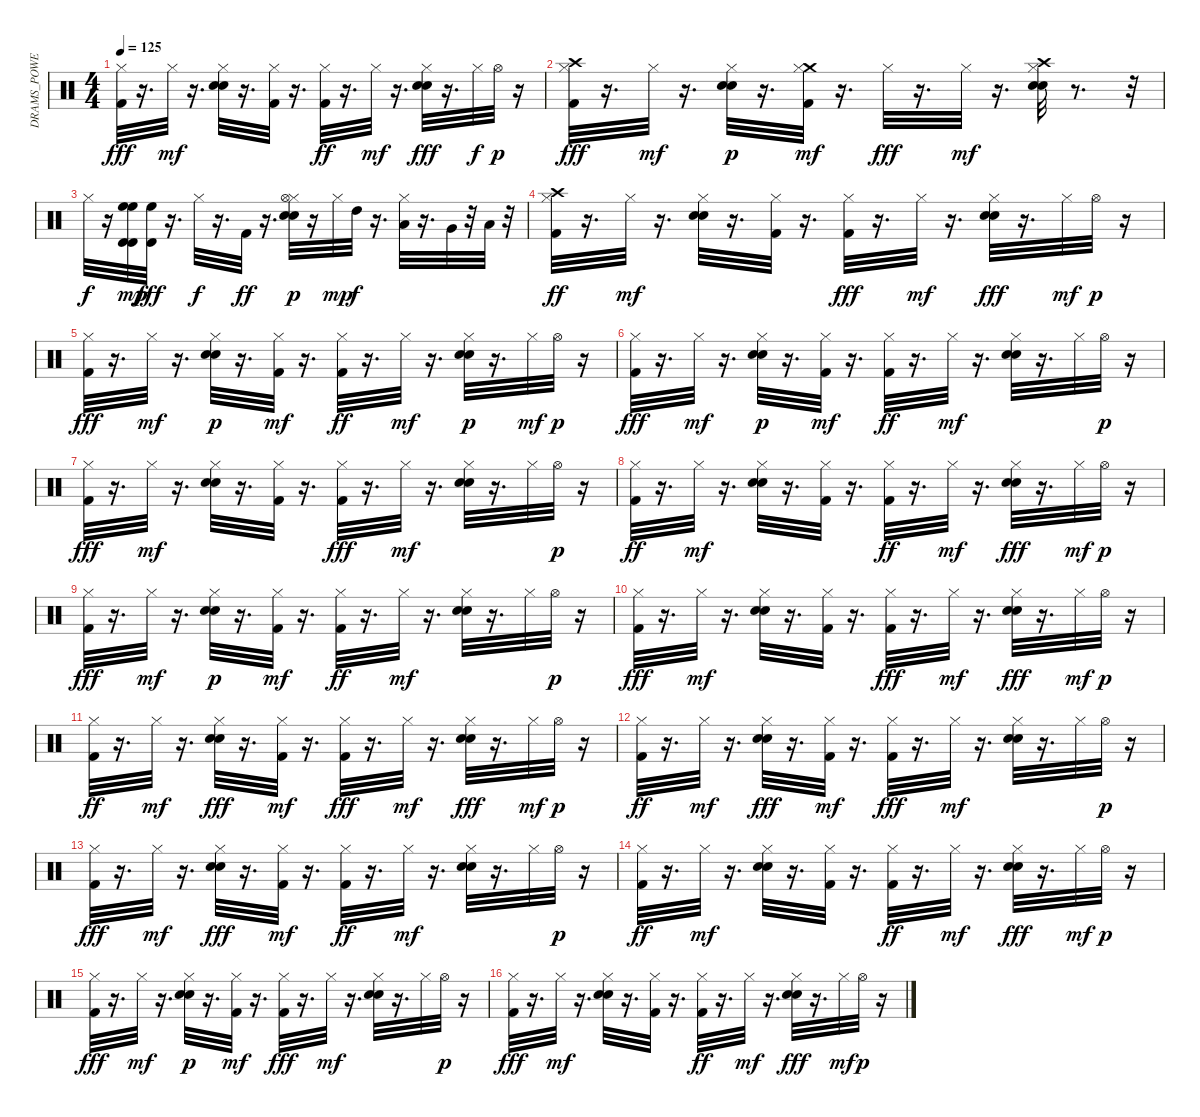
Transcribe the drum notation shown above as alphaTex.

\track ("DRAMS_POWER" "DRAMS_POWE") {instrument percussion}
\staff {score}
\articulation defaults
\ts (4 4)
\tempo 125
\clef neutral
\ks c
("Kick (hit) 2" "Hi-Hat (closed)").32{dy fff} r.16{d} "Hi-Hat (closed)".32{dy mf} r.16{d} ("Snare (hit) 2" "Electric Snare (hit)" "Hi-Hat (closed)").32 r.16{d} ("Kick (hit) 2" "Hi-Hat (closed)").32 r.16{d} ("Hi-Hat (closed)" "Kick (hit) 2").32{dy ff} r.16{d} "Hi-Hat (closed)".32{dy mf} r.16{d} ("Snare (hit) 2" "Hi-Hat (closed)" "Electric Snare (hit)").32{dy fff} r.16{d} "Hi-Hat (closed)".32{dy f} "Hi-Hat (open)".32{dy p} r.16 |
("Crash high (hit)" "Kick (hit) 2" "Hi-Hat (closed)").32{dy fff} r.16{d} "Hi-Hat (closed)".32{dy mf} r.16{d} ("Electric Snare (hit)" "Hi-Hat (closed)" "Snare (hit) 2").32{dy p} r.16{d} ("Crash medium (hit)" "Kick (hit) 2" "Hi-Hat (closed)").32{dy mf} r.16{d} "Hi-Hat (closed)".32{dy fff} r.16{d} "Hi-Hat (closed)".32{dy mf} r.16{d} ("Crash high (hit)" "Electric Snare (hit)" "Snare (hit) 2" "Hi-Hat (closed)").32 r.8{d} r.32 |
"Hi-Hat (closed)".32{dy f} r.16 ("High Floor Tom (hit)" "Timbale high (hit)" "High Floor Tom (hit)" "Timbale high (hit)").32{dy mp} ("Timbale high (hit)" "High Floor Tom (hit)").32{dy fff} r.16{d} "Hi-Hat (closed)".32{dy f} r.16{d} "Kick (hit) 2".32{dy ff} r.16{d} ("Hi-Hat (closed)" "Hi-Hat (open)" "Electric Snare (hit)" "Snare (hit) 2").32{dy p} r.16 "Hi-Hat (closed)".32{dy mp} "High Tom (hit)".32{dy f} r.16{d} ("Hi-Hat (closed)" "Low Tom (hit)").32 r.16{d} "Very Low Tom (hit)".32 r.32 "Low Floor Tom (hit)".32 r.32 |
("Crash high (hit)" "Hi-Hat (closed)" "Kick (hit) 2").32{dy ff} r.16{d} "Hi-Hat (closed)".32{dy mf} r.16{d} ("Electric Snare (hit)" "Snare (hit) 2" "Hi-Hat (closed)").32 r.16{d} ("Kick (hit) 2" "Hi-Hat (closed)").32 r.16{d} ("Kick (hit) 2" "Hi-Hat (closed)").32{dy fff} r.16{d} "Hi-Hat (closed)".32{dy mf} r.16{d} ("Snare (hit) 2" "Hi-Hat (closed)" "Electric Snare (hit)").32{dy fff} r.16{d} "Hi-Hat (closed)".32{dy mf} "Hi-Hat (open)".32{dy p} r.16 |
("Kick (hit) 2" "Hi-Hat (closed)").32{dy fff} r.16{d} "Hi-Hat (closed)".32{dy mf} r.16{d} ("Electric Snare (hit)" "Hi-Hat (closed)" "Snare (hit) 2").32{dy p} r.16{d} ("Kick (hit) 2" "Hi-Hat (closed)").32{dy mf} r.16{d} ("Hi-Hat (closed)" "Kick (hit) 2").32{dy ff} r.16{d} "Hi-Hat (closed)".32{dy mf} r.16{d} ("Hi-Hat (closed)" "Electric Snare (hit)" "Snare (hit) 2").32{dy p} r.16{d} "Hi-Hat (closed)".32{dy mf} "Hi-Hat (open)".32{dy p} r.16 |
("Kick (hit) 2" "Hi-Hat (closed)").32{dy fff} r.16{d} "Hi-Hat (closed)".32{dy mf} r.16{d} ("Hi-Hat (closed)" "Electric Snare (hit)" "Snare (hit) 2").32{dy p} r.16{d} ("Hi-Hat (closed)" "Kick (hit) 2").32{dy mf} r.16{d} ("Hi-Hat (closed)" "Kick (hit) 2").32{dy ff} r.16{d} "Hi-Hat (closed)".32{dy mf} r.16{d} ("Electric Snare (hit)" "Snare (hit) 2" "Hi-Hat (closed)").32 r.16{d} "Hi-Hat (closed)".32 "Hi-Hat (open)".32{dy p} r.16 |
("Kick (hit) 2" "Hi-Hat (closed)").32{dy fff} r.16{d} "Hi-Hat (closed)".32{dy mf} r.16{d} ("Snare (hit) 2" "Electric Snare (hit)" "Hi-Hat (closed)").32 r.16{d} ("Hi-Hat (closed)" "Kick (hit) 2").32 r.16{d} ("Kick (hit) 2" "Hi-Hat (closed)").32{dy fff} r.16{d} "Hi-Hat (closed)".32{dy mf} r.16{d} ("Snare (hit) 2" "Electric Snare (hit)" "Hi-Hat (closed)").32 r.16{d} "Hi-Hat (closed)".32 "Hi-Hat (open)".32{dy p} r.16 |
("Hi-Hat (closed)" "Kick (hit) 2").32{dy ff} r.16{d} "Hi-Hat (closed)".32{dy mf} r.16{d} ("Snare (hit) 2" "Electric Snare (hit)" "Hi-Hat (closed)").32 r.16{d} ("Hi-Hat (closed)" "Kick (hit) 2").32 r.16{d} ("Hi-Hat (closed)" "Kick (hit) 2").32{dy ff} r.16{d} "Hi-Hat (closed)".32{dy mf} r.16{d} ("Snare (hit) 2" "Hi-Hat (closed)" "Electric Snare (hit)").32{dy fff} r.16{d} "Hi-Hat (closed)".32{dy mf} "Hi-Hat (open)".32{dy p} r.16 |
("Kick (hit) 2" "Hi-Hat (closed)").32{dy fff} r.16{d} "Hi-Hat (closed)".32{dy mf} r.16{d} ("Electric Snare (hit)" "Hi-Hat (closed)" "Snare (hit) 2").32{dy p} r.16{d} ("Hi-Hat (closed)" "Kick (hit) 2").32{dy mf} r.16{d} ("Hi-Hat (closed)" "Kick (hit) 2").32{dy ff} r.16{d} "Hi-Hat (closed)".32{dy mf} r.16{d} ("Electric Snare (hit)" "Snare (hit) 2" "Hi-Hat (closed)").32 r.16{d} "Hi-Hat (closed)".32 "Hi-Hat (open)".32{dy p} r.16 |
("Kick (hit) 2" "Hi-Hat (closed)").32{dy fff} r.16{d} "Hi-Hat (closed)".32{dy mf} r.16{d} ("Snare (hit) 2" "Electric Snare (hit)" "Hi-Hat (closed)").32 r.16{d} ("Hi-Hat (closed)" "Kick (hit) 2").32 r.16{d} ("Kick (hit) 2" "Hi-Hat (closed)").32{dy fff} r.16{d} "Hi-Hat (closed)".32{dy mf} r.16{d} ("Snare (hit) 2" "Hi-Hat (closed)" "Electric Snare (hit)").32{dy fff} r.16{d} "Hi-Hat (closed)".32{dy mf} "Hi-Hat (open)".32{dy p} r.16 |
("Hi-Hat (closed)" "Kick (hit) 2").32{dy ff} r.16{d} "Hi-Hat (closed)".32{dy mf} r.16{d} ("Snare (hit) 2" "Hi-Hat (closed)" "Electric Snare (hit)").32{dy fff} r.16{d} ("Hi-Hat (closed)" "Kick (hit) 2").32{dy mf} r.16{d} ("Kick (hit) 2" "Hi-Hat (closed)").32{dy fff} r.16{d} "Hi-Hat (closed)".32{dy mf} r.16{d} ("Snare (hit) 2" "Hi-Hat (closed)" "Electric Snare (hit)").32{dy fff} r.16{d} "Hi-Hat (closed)".32{dy mf} "Hi-Hat (open)".32{dy p} r.16 |
("Hi-Hat (closed)" "Kick (hit) 2").32{dy ff} r.16{d} "Hi-Hat (closed)".32{dy mf} r.16{d} ("Snare (hit) 2" "Hi-Hat (closed)" "Electric Snare (hit)").32{dy fff} r.16{d} ("Kick (hit) 2" "Hi-Hat (closed)").32{dy mf} r.16{d} ("Kick (hit) 2" "Hi-Hat (closed)").32{dy fff} r.16{d} "Hi-Hat (closed)".32{dy mf} r.16{d} ("Electric Snare (hit)" "Snare (hit) 2" "Hi-Hat (closed)").32 r.16{d} "Hi-Hat (closed)".32 "Hi-Hat (open)".32{dy p} r.16 |
("Kick (hit) 2" "Hi-Hat (closed)").32{dy fff} r.16{d} "Hi-Hat (closed)".32{dy mf} r.16{d} ("Snare (hit) 2" "Hi-Hat (closed)" "Electric Snare (hit)").32{dy fff} r.16{d} ("Hi-Hat (closed)" "Kick (hit) 2").32{dy mf} r.16{d} ("Hi-Hat (closed)" "Kick (hit) 2").32{dy ff} r.16{d} "Hi-Hat (closed)".32{dy mf} r.16{d} ("Snare (hit) 2" "Electric Snare (hit)" "Hi-Hat (closed)").32 r.16{d} "Hi-Hat (closed)".32 "Hi-Hat (open)".32{dy p} r.16 |
("Hi-Hat (closed)" "Kick (hit) 2").32{dy ff} r.16{d} "Hi-Hat (closed)".32{dy mf} r.16{d} ("Snare (hit) 2" "Electric Snare (hit)" "Hi-Hat (closed)").32 r.16{d} ("Kick (hit) 2" "Hi-Hat (closed)").32 r.16{d} ("Hi-Hat (closed)" "Kick (hit) 2").32{dy ff} r.16{d} "Hi-Hat (closed)".32{dy mf} r.16{d} ("Snare (hit) 2" "Hi-Hat (closed)" "Electric Snare (hit)").32{dy fff} r.16{d} "Hi-Hat (closed)".32{dy mf} "Hi-Hat (open)".32{dy p} r.16 |
("Kick (hit) 2" "Hi-Hat (closed)").32{dy fff} r.16{d} "Hi-Hat (closed)".32{dy mf} r.16{d} ("Electric Snare (hit)" "Hi-Hat (closed)" "Snare (hit) 2").32{dy p} r.16{d} ("Hi-Hat (closed)" "Kick (hit) 2").32{dy mf} r.16{d} ("Kick (hit) 2" "Hi-Hat (closed)").32{dy fff} r.16{d} "Hi-Hat (closed)".32{dy mf} r.16{d} ("Electric Snare (hit)" "Snare (hit) 2" "Hi-Hat (closed)").32 r.16{d} "Hi-Hat (closed)".32 "Hi-Hat (open)".32{dy p} r.16 |
("Kick (hit) 2" "Hi-Hat (closed)").32{dy fff} r.16{d} "Hi-Hat (closed)".32{dy mf} r.16{d} ("Snare (hit) 2" "Electric Snare (hit)" "Hi-Hat (closed)").32 r.16{d} ("Kick (hit) 2" "Hi-Hat (closed)").32 r.16{d} ("Hi-Hat (closed)" "Kick (hit) 2").32{dy ff} r.16{d} "Hi-Hat (closed)".32{dy mf} r.16{d} ("Snare (hit) 2" "Hi-Hat (closed)" "Electric Snare (hit)").32{dy fff} r.16{d} "Hi-Hat (closed)".32{dy mf} "Hi-Hat (open)".32{dy p} r.16
